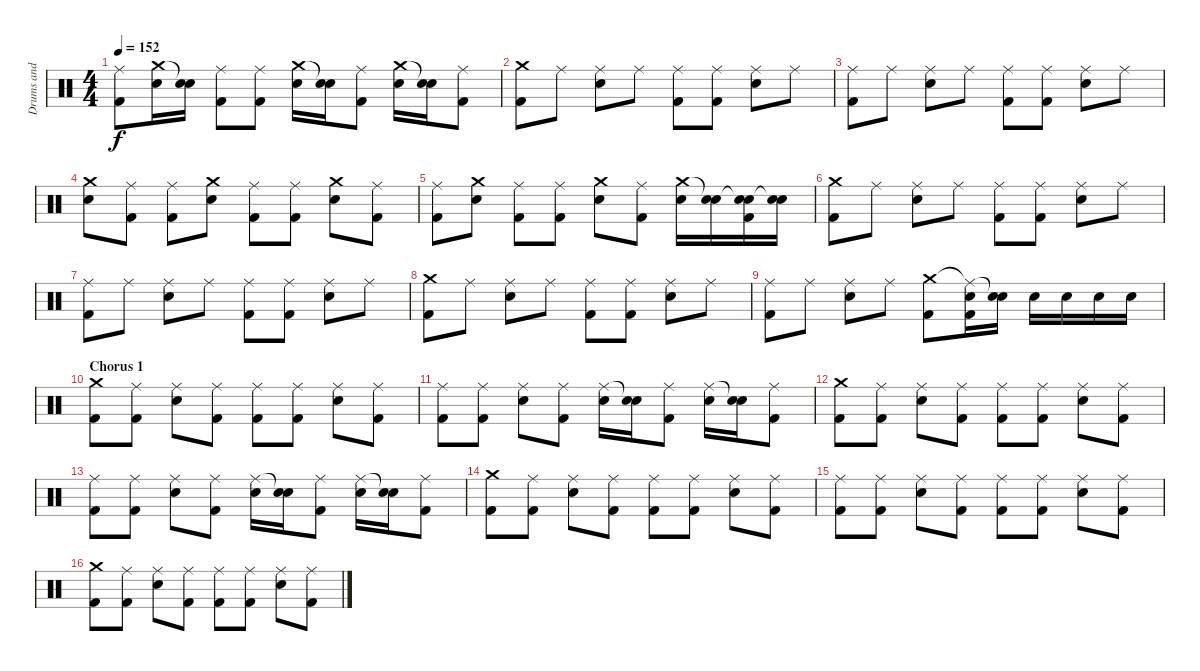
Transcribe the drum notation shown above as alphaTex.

\track ("Drums and Percussion" "Drums and ") {instrument percussion}
\staff {score}
\articulation defaults
\ts (4 4)
\tempo 152
\clef neutral
\ks c
("Ride (middle)" "Kick (hit) 2").8{dy f} ("Crash medium (hit)" "Electric Snare (hit)").16 ("Snare (hit)"{t} "Electric Snare (hit)").16 ("Ride (middle)" "Kick (hit) 2").8 ("Ride (middle)" "Kick (hit) 2").8 ("Crash medium (hit)" "Electric Snare (hit)").16 ("Snare (hit)"{t} "Electric Snare (hit)").16 ("Ride (middle)" "Kick (hit) 2").8 ("Crash medium (hit)" "Electric Snare (hit)").16 ("Snare (hit)"{t} "Electric Snare (hit)").16 ("Ride (middle)" "Kick (hit) 2").8 |
("Crash medium (hit)" "Kick (hit) 2").8 "Ride (middle)".8 ("Ride (middle)" "Electric Snare (hit)").8 "Ride (middle)".8 ("Ride (middle)" "Kick (hit) 2").8 ("Ride (middle)" "Kick (hit) 2").8 ("Ride (middle)" "Electric Snare (hit)").8 "Ride (middle)".8 |
("Ride (middle)" "Kick (hit) 2").8 "Ride (middle)".8 ("Ride (middle)" "Electric Snare (hit)").8 "Ride (middle)".8 ("Ride (middle)" "Kick (hit) 2").8 ("Ride (middle)" "Kick (hit) 2").8 ("Ride (middle)" "Electric Snare (hit)").8 "Ride (middle)".8 |
("Crash medium (hit)" "Electric Snare (hit)").8 ("Ride (middle)" "Kick (hit) 2").8 ("Ride (middle)" "Kick (hit) 2").8 ("Crash medium (hit)" "Electric Snare (hit)").8 ("Ride (middle)" "Kick (hit) 2").8 ("Ride (middle)" "Kick (hit) 2").8 ("Crash medium (hit)" "Electric Snare (hit)").8 ("Ride (middle)" "Kick (hit) 2").8 |
("Ride (middle)" "Kick (hit) 2").8 ("Crash medium (hit)" "Electric Snare (hit)").8 ("Ride (middle)" "Kick (hit) 2").8 ("Ride (middle)" "Kick (hit) 2").8 ("Crash medium (hit)" "Electric Snare (hit)").8 ("Ride (middle)" "Kick (hit) 2").8 ("Crash medium (hit)" "Electric Snare (hit)").16 ("Snare (hit)"{t} "Electric Snare (hit)").16 ("Snare (hit)"{t} "Electric Snare (hit)" "Kick (hit) 2").16 ("Snare (hit)"{t} "Electric Snare (hit)").16 |
("Crash medium (hit)" "Kick (hit) 2").8 "Ride (middle)".8 ("Ride (middle)" "Electric Snare (hit)").8 "Ride (middle)".8 ("Ride (middle)" "Kick (hit) 2").8 ("Ride (middle)" "Kick (hit) 2").8 ("Ride (middle)" "Electric Snare (hit)").8 "Ride (middle)".8 |
("Ride (middle)" "Kick (hit) 2").8 "Ride (middle)".8 ("Ride (middle)" "Electric Snare (hit)").8 "Ride (middle)".8 ("Ride (middle)" "Kick (hit) 2").8 ("Ride (middle)" "Kick (hit) 2").8 ("Ride (middle)" "Electric Snare (hit)").8 "Ride (middle)".8 |
("Crash medium (hit)" "Kick (hit) 2").8 "Ride (middle)".8 ("Ride (middle)" "Electric Snare (hit)").8 "Ride (middle)".8 ("Ride (middle)" "Kick (hit) 2").8 ("Ride (middle)" "Kick (hit) 2").8 ("Ride (middle)" "Electric Snare (hit)").8 "Ride (middle)".8 |
("Ride (middle)" "Kick (hit) 2").8 "Ride (middle)".8 ("Ride (middle)" "Electric Snare (hit)").8 "Ride (middle)".8 ("Crash medium (hit)" "Kick (hit) 2").8 ("Ride (middle)"{t} "Electric Snare (hit)" "Kick (hit) 2").16 ("Snare (hit)"{t} "Electric Snare (hit)").16 "Electric Snare (hit)".16 "Electric Snare (hit)".16 "Electric Snare (hit)".16 "Electric Snare (hit)".16 |
\section ("" "Chorus 1")
("Crash medium (hit)" "Kick (hit) 2").8 ("Ride (middle)" "Kick (hit) 2").8 ("Ride (middle)" "Electric Snare (hit)").8 ("Ride (middle)" "Kick (hit) 2").8 ("Ride (middle)" "Kick (hit) 2").8 ("Ride (middle)" "Kick (hit) 2").8 ("Ride (middle)" "Electric Snare (hit)").8 ("Ride (middle)" "Kick (hit) 2").8 |
("Ride (middle)" "Kick (hit) 2").8 ("Ride (middle)" "Kick (hit) 2").8 ("Ride (middle)" "Electric Snare (hit)").8 ("Ride (middle)" "Kick (hit) 2").8 ("Ride (middle)" "Electric Snare (hit)").16 ("Snare (hit)"{t} "Electric Snare (hit)").16 ("Ride (middle)" "Kick (hit) 2").8 ("Ride (middle)" "Electric Snare (hit)").16 ("Snare (hit)"{t} "Electric Snare (hit)").16 ("Ride (middle)" "Kick (hit) 2").8 |
("Crash medium (hit)" "Kick (hit) 2").8 ("Ride (middle)" "Kick (hit) 2").8 ("Ride (middle)" "Electric Snare (hit)").8 ("Ride (middle)" "Kick (hit) 2").8 ("Ride (middle)" "Kick (hit) 2").8 ("Ride (middle)" "Kick (hit) 2").8 ("Ride (middle)" "Electric Snare (hit)").8 ("Ride (middle)" "Kick (hit) 2").8 |
("Ride (middle)" "Kick (hit) 2").8 ("Ride (middle)" "Kick (hit) 2").8 ("Ride (middle)" "Electric Snare (hit)").8 ("Ride (middle)" "Kick (hit) 2").8 ("Ride (middle)" "Electric Snare (hit)").16 ("Snare (hit)"{t} "Electric Snare (hit)").16 ("Ride (middle)" "Kick (hit) 2").8 ("Ride (middle)" "Electric Snare (hit)").16 ("Snare (hit)"{t} "Electric Snare (hit)").16 ("Ride (middle)" "Kick (hit) 2").8 |
("Crash medium (hit)" "Kick (hit) 2").8 ("Ride (middle)" "Kick (hit) 2").8 ("Ride (middle)" "Electric Snare (hit)").8 ("Ride (middle)" "Kick (hit) 2").8 ("Ride (middle)" "Kick (hit) 2").8 ("Ride (middle)" "Kick (hit) 2").8 ("Ride (middle)" "Electric Snare (hit)").8 ("Ride (middle)" "Kick (hit) 2").8 |
("Ride (middle)" "Kick (hit) 2").8 ("Ride (middle)" "Kick (hit) 2").8 ("Ride (middle)" "Electric Snare (hit)").8 ("Ride (middle)" "Kick (hit) 2").8 ("Ride (middle)" "Kick (hit) 2").8 ("Ride (middle)" "Kick (hit) 2").8 ("Ride (middle)" "Electric Snare (hit)").8 ("Ride (middle)" "Kick (hit) 2").8 |
("Crash medium (hit)" "Kick (hit) 2").8 ("Ride (middle)" "Kick (hit) 2").8 ("Ride (middle)" "Electric Snare (hit)").8 ("Ride (middle)" "Kick (hit) 2").8 ("Ride (middle)" "Kick (hit) 2").8 ("Ride (middle)" "Kick (hit) 2").8 ("Ride (middle)" "Electric Snare (hit)").8 ("Ride (middle)" "Kick (hit) 2").8
